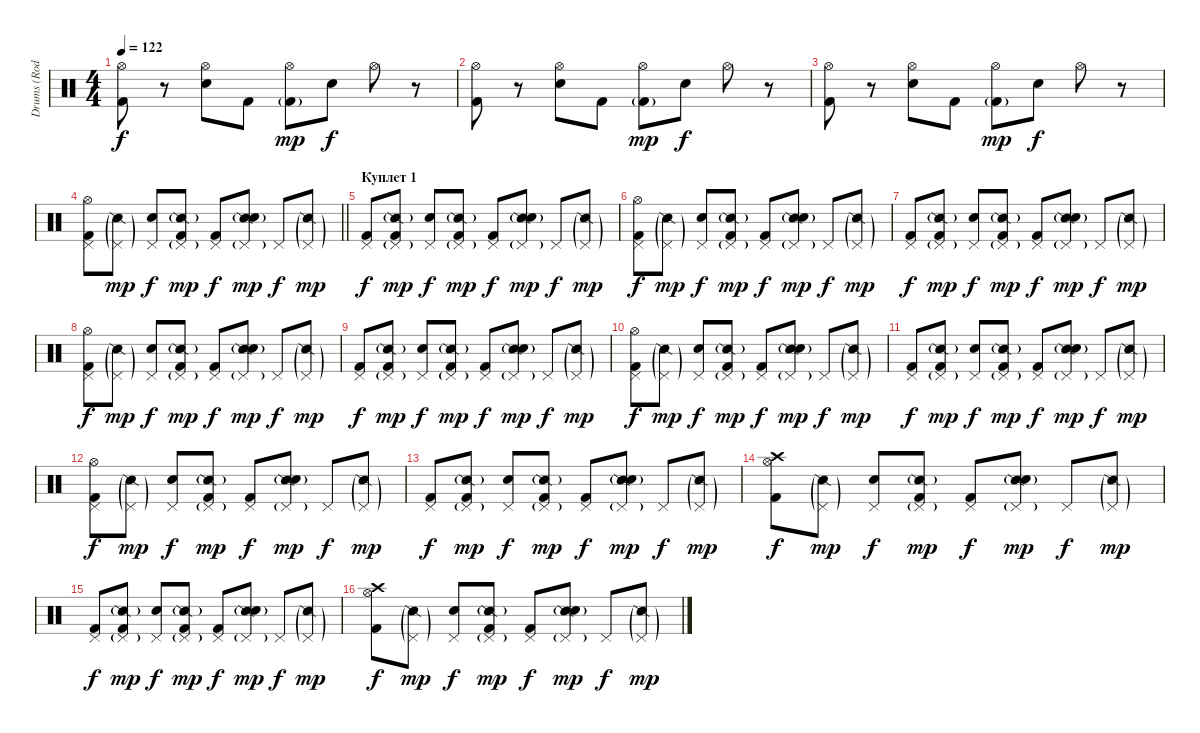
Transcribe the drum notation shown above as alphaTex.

\track ("Drums (Rod Bourdon)" "Drums (Rod") {instrument percussion}
\staff {score}
\articulation defaults
\ts (4 4)
\tempo 122
\clef neutral
\ks c
("Hi-Hat (open)" "Kick (hit) 2").8{dy f} r.8 ("Hi-Hat (open)" "Electric Snare (hit)").8 "Kick (hit) 2".8 ("Hi-Hat (open)" "Kick (hit) 2"{g}).8{dy mp} "Electric Snare (hit)".8{dy f} "Hi-Hat (open)".8 r.8 |
("Hi-Hat (open)" "Kick (hit) 2").8 r.8 ("Hi-Hat (open)" "Electric Snare (hit)").8 "Kick (hit) 2".8 ("Hi-Hat (open)" "Kick (hit) 2"{g}).8{dy mp} "Electric Snare (hit)".8{dy f} "Hi-Hat (open)".8 r.8 |
("Hi-Hat (open)" "Kick (hit) 2").8 r.8 ("Hi-Hat (open)" "Electric Snare (hit)").8 "Kick (hit) 2".8 ("Hi-Hat (open)" "Kick (hit) 2"{g}).8{dy mp} "Electric Snare (hit)".8{dy f} "Hi-Hat (open)".8 r.8 |
\barLineRight lightlight
("Pedal Hi-Hat (hit)" "Hi-Hat (open)" "Kick (hit) 2").8 ("Snare (side stick) 2"{g} "Pedal Hi-Hat (hit)"{g}).8{dy mp} ("Pedal Hi-Hat (hit)" "Electric Snare (hit)").8{dy f} ("Snare (side stick) 2"{g} "Pedal Hi-Hat (hit)"{g} "Kick (hit) 2").8{dy mp} ("Pedal Hi-Hat (hit)" "Kick (hit) 2").8{dy f} ("Snare (side stick) 2"{g} "Pedal Hi-Hat (hit)"{g} "Electric Snare (hit)").8{dy mp} "Pedal Hi-Hat (hit)".8{dy f} ("Snare (side stick) 2"{g} "Pedal Hi-Hat (hit)"{g}).8{dy mp} |
\section ("" "Куплет 1")
("Pedal Hi-Hat (hit)" "Kick (hit) 2").8{dy f} ("Snare (side stick) 2"{g} "Pedal Hi-Hat (hit)"{g} "Kick (hit) 2").8{dy mp} ("Pedal Hi-Hat (hit)" "Electric Snare (hit)").8{dy f} ("Snare (side stick) 2"{g} "Pedal Hi-Hat (hit)"{g} "Kick (hit) 2").8{dy mp} ("Pedal Hi-Hat (hit)" "Kick (hit) 2").8{dy f} ("Snare (side stick) 2"{g} "Pedal Hi-Hat (hit)"{g} "Electric Snare (hit)").8{dy mp} "Pedal Hi-Hat (hit)".8{dy f} ("Snare (side stick) 2"{g} "Pedal Hi-Hat (hit)"{g}).8{dy mp} |
("Pedal Hi-Hat (hit)" "Hi-Hat (open)" "Kick (hit) 2").8{dy f} ("Snare (side stick) 2"{g} "Pedal Hi-Hat (hit)"{g}).8{dy mp} ("Pedal Hi-Hat (hit)" "Electric Snare (hit)").8{dy f} ("Snare (side stick) 2"{g} "Pedal Hi-Hat (hit)"{g} "Kick (hit) 2").8{dy mp} ("Pedal Hi-Hat (hit)" "Kick (hit) 2").8{dy f} ("Snare (side stick) 2"{g} "Pedal Hi-Hat (hit)"{g} "Electric Snare (hit)").8{dy mp} "Pedal Hi-Hat (hit)".8{dy f} ("Snare (side stick) 2"{g} "Pedal Hi-Hat (hit)"{g}).8{dy mp} |
("Pedal Hi-Hat (hit)" "Kick (hit) 2").8{dy f} ("Snare (side stick) 2"{g} "Pedal Hi-Hat (hit)"{g} "Kick (hit) 2").8{dy mp} ("Pedal Hi-Hat (hit)" "Electric Snare (hit)").8{dy f} ("Snare (side stick) 2"{g} "Pedal Hi-Hat (hit)"{g} "Kick (hit) 2").8{dy mp} ("Pedal Hi-Hat (hit)" "Kick (hit) 2").8{dy f} ("Snare (side stick) 2"{g} "Pedal Hi-Hat (hit)"{g} "Electric Snare (hit)").8{dy mp} "Pedal Hi-Hat (hit)".8{dy f} ("Snare (side stick) 2"{g} "Pedal Hi-Hat (hit)"{g}).8{dy mp} |
("Pedal Hi-Hat (hit)" "Hi-Hat (open)" "Kick (hit) 2").8{dy f} ("Snare (side stick) 2"{g} "Pedal Hi-Hat (hit)"{g}).8{dy mp} ("Pedal Hi-Hat (hit)" "Electric Snare (hit)").8{dy f} ("Snare (side stick) 2"{g} "Pedal Hi-Hat (hit)"{g} "Kick (hit) 2").8{dy mp} ("Pedal Hi-Hat (hit)" "Kick (hit) 2").8{dy f} ("Snare (side stick) 2"{g} "Pedal Hi-Hat (hit)"{g} "Electric Snare (hit)").8{dy mp} "Pedal Hi-Hat (hit)".8{dy f} ("Snare (side stick) 2"{g} "Pedal Hi-Hat (hit)"{g}).8{dy mp} |
("Pedal Hi-Hat (hit)" "Kick (hit) 2").8{dy f} ("Snare (side stick) 2"{g} "Pedal Hi-Hat (hit)"{g} "Kick (hit) 2").8{dy mp} ("Pedal Hi-Hat (hit)" "Electric Snare (hit)").8{dy f} ("Snare (side stick) 2"{g} "Pedal Hi-Hat (hit)"{g} "Kick (hit) 2").8{dy mp} ("Pedal Hi-Hat (hit)" "Kick (hit) 2").8{dy f} ("Snare (side stick) 2"{g} "Pedal Hi-Hat (hit)"{g} "Electric Snare (hit)").8{dy mp} "Pedal Hi-Hat (hit)".8{dy f} ("Snare (side stick) 2"{g} "Pedal Hi-Hat (hit)"{g}).8{dy mp} |
("Pedal Hi-Hat (hit)" "Hi-Hat (open)" "Kick (hit) 2").8{dy f} ("Snare (side stick) 2"{g} "Pedal Hi-Hat (hit)"{g}).8{dy mp} ("Pedal Hi-Hat (hit)" "Electric Snare (hit)").8{dy f} ("Snare (side stick) 2"{g} "Pedal Hi-Hat (hit)"{g} "Kick (hit) 2").8{dy mp} ("Pedal Hi-Hat (hit)" "Kick (hit) 2").8{dy f} ("Snare (side stick) 2"{g} "Pedal Hi-Hat (hit)"{g} "Electric Snare (hit)").8{dy mp} "Pedal Hi-Hat (hit)".8{dy f} ("Snare (side stick) 2"{g} "Pedal Hi-Hat (hit)"{g}).8{dy mp} |
("Pedal Hi-Hat (hit)" "Kick (hit) 2").8{dy f} ("Snare (side stick) 2"{g} "Pedal Hi-Hat (hit)"{g} "Kick (hit) 2").8{dy mp} ("Pedal Hi-Hat (hit)" "Electric Snare (hit)").8{dy f} ("Snare (side stick) 2"{g} "Pedal Hi-Hat (hit)"{g} "Kick (hit) 2").8{dy mp} ("Pedal Hi-Hat (hit)" "Kick (hit) 2").8{dy f} ("Snare (side stick) 2"{g} "Pedal Hi-Hat (hit)"{g} "Electric Snare (hit)").8{dy mp} "Pedal Hi-Hat (hit)".8{dy f} ("Snare (side stick) 2"{g} "Pedal Hi-Hat (hit)"{g}).8{dy mp} |
("Pedal Hi-Hat (hit)" "Hi-Hat (open)" "Kick (hit) 2").8{dy f} ("Snare (side stick) 2"{g} "Pedal Hi-Hat (hit)"{g}).8{dy mp} ("Pedal Hi-Hat (hit)" "Electric Snare (hit)").8{dy f} ("Snare (side stick) 2"{g} "Pedal Hi-Hat (hit)"{g} "Kick (hit) 2").8{dy mp} ("Pedal Hi-Hat (hit)" "Kick (hit) 2").8{dy f} ("Snare (side stick) 2"{g} "Pedal Hi-Hat (hit)"{g} "Electric Snare (hit)").8{dy mp} "Pedal Hi-Hat (hit)".8{dy f} ("Snare (side stick) 2"{g} "Pedal Hi-Hat (hit)"{g}).8{dy mp} |
("Pedal Hi-Hat (hit)" "Kick (hit) 2").8{dy f} ("Snare (side stick) 2"{g} "Pedal Hi-Hat (hit)"{g} "Kick (hit) 2").8{dy mp} ("Pedal Hi-Hat (hit)" "Electric Snare (hit)").8{dy f} ("Snare (side stick) 2"{g} "Pedal Hi-Hat (hit)"{g} "Kick (hit) 2").8{dy mp} ("Pedal Hi-Hat (hit)" "Kick (hit) 2").8{dy f} ("Snare (side stick) 2"{g} "Pedal Hi-Hat (hit)"{g} "Electric Snare (hit)").8{dy mp} "Pedal Hi-Hat (hit)".8{dy f} ("Snare (side stick) 2"{g} "Pedal Hi-Hat (hit)"{g}).8{dy mp} |
("Crash high (hit)" "Hi-Hat (open)" "Kick (hit) 2").8{dy f} ("Snare (side stick) 2"{g} "Pedal Hi-Hat (hit)"{g}).8{dy mp} ("Pedal Hi-Hat (hit)" "Electric Snare (hit)").8{dy f} ("Snare (side stick) 2"{g} "Pedal Hi-Hat (hit)"{g} "Kick (hit) 2").8{dy mp} ("Pedal Hi-Hat (hit)" "Kick (hit) 2").8{dy f} ("Snare (side stick) 2"{g} "Pedal Hi-Hat (hit)"{g} "Electric Snare (hit)").8{dy mp} "Pedal Hi-Hat (hit)".8{dy f} ("Snare (side stick) 2"{g} "Pedal Hi-Hat (hit)"{g}).8{dy mp} |
("Pedal Hi-Hat (hit)" "Kick (hit) 2").8{dy f} ("Snare (side stick) 2"{g} "Pedal Hi-Hat (hit)"{g} "Kick (hit) 2").8{dy mp} ("Pedal Hi-Hat (hit)" "Electric Snare (hit)").8{dy f} ("Snare (side stick) 2"{g} "Pedal Hi-Hat (hit)"{g} "Kick (hit) 2").8{dy mp} ("Pedal Hi-Hat (hit)" "Kick (hit) 2").8{dy f} ("Snare (side stick) 2"{g} "Pedal Hi-Hat (hit)"{g} "Electric Snare (hit)").8{dy mp} "Pedal Hi-Hat (hit)".8{dy f} ("Snare (side stick) 2"{g} "Pedal Hi-Hat (hit)"{g}).8{dy mp} |
("Crash high (hit)" "Hi-Hat (open)" "Kick (hit) 2").8{dy f} ("Snare (side stick) 2"{g} "Pedal Hi-Hat (hit)"{g}).8{dy mp} ("Pedal Hi-Hat (hit)" "Electric Snare (hit)").8{dy f} ("Snare (side stick) 2"{g} "Pedal Hi-Hat (hit)"{g} "Kick (hit) 2").8{dy mp} ("Pedal Hi-Hat (hit)" "Kick (hit) 2").8{dy f} ("Snare (side stick) 2"{g} "Pedal Hi-Hat (hit)"{g} "Electric Snare (hit)").8{dy mp} "Pedal Hi-Hat (hit)".8{dy f} ("Snare (side stick) 2"{g} "Pedal Hi-Hat (hit)"{g}).8{dy mp}
